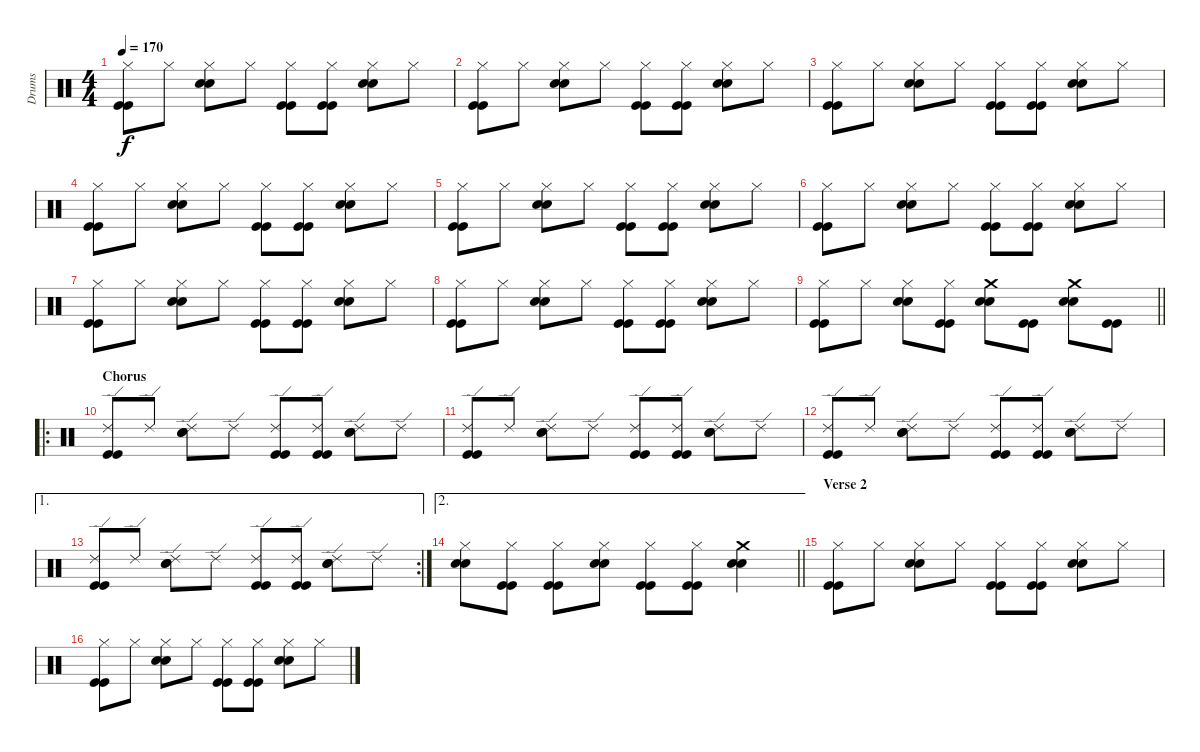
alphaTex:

\track ("Drums" "Drums") {instrument percussion}
\staff {score}
\articulation defaults
\ts (4 4)
\tempo 170
\clef neutral
\ks c
("Hi-Hat (closed)" "Kick (hit)" "Kick (hit)").8{dy f} "Hi-Hat (closed)".8 ("Hi-Hat (closed)" "Snare (hit) 2" "Snare (hit) 2").8 "Hi-Hat (closed)".8 ("Hi-Hat (closed)" "Kick (hit)" "Kick (hit)").8 ("Hi-Hat (closed)" "Kick (hit)" "Kick (hit)").8 ("Hi-Hat (closed)" "Snare (hit) 2" "Snare (hit) 2").8 "Hi-Hat (closed)".8 |
("Hi-Hat (closed)" "Kick (hit)" "Kick (hit)").8 "Hi-Hat (closed)".8 ("Hi-Hat (closed)" "Snare (hit) 2" "Snare (hit) 2").8 "Hi-Hat (closed)".8 ("Hi-Hat (closed)" "Kick (hit)" "Kick (hit)").8 ("Hi-Hat (closed)" "Kick (hit)" "Kick (hit)").8 ("Hi-Hat (closed)" "Snare (hit) 2" "Snare (hit) 2").8 "Hi-Hat (closed)".8 |
("Hi-Hat (closed)" "Kick (hit)" "Kick (hit)").8 "Hi-Hat (closed)".8 ("Hi-Hat (closed)" "Snare (hit) 2" "Snare (hit) 2").8 "Hi-Hat (closed)".8 ("Hi-Hat (closed)" "Kick (hit)" "Kick (hit)").8 ("Hi-Hat (closed)" "Kick (hit)" "Kick (hit)").8 ("Hi-Hat (closed)" "Snare (hit) 2" "Snare (hit) 2").8 "Hi-Hat (closed)".8 |
("Hi-Hat (closed)" "Kick (hit)" "Kick (hit)").8 "Hi-Hat (closed)".8 ("Hi-Hat (closed)" "Snare (hit) 2" "Snare (hit) 2").8 "Hi-Hat (closed)".8 ("Hi-Hat (closed)" "Kick (hit)" "Kick (hit)").8 ("Hi-Hat (closed)" "Kick (hit)" "Kick (hit)").8 ("Hi-Hat (closed)" "Snare (hit) 2" "Snare (hit) 2").8 "Hi-Hat (closed)".8 |
("Hi-Hat (closed)" "Kick (hit)" "Kick (hit)").8 "Hi-Hat (closed)".8 ("Hi-Hat (closed)" "Snare (hit) 2" "Snare (hit) 2").8 "Hi-Hat (closed)".8 ("Hi-Hat (closed)" "Kick (hit)" "Kick (hit)").8 ("Hi-Hat (closed)" "Kick (hit)" "Kick (hit)").8 ("Hi-Hat (closed)" "Snare (hit) 2" "Snare (hit) 2").8 "Hi-Hat (closed)".8 |
("Hi-Hat (closed)" "Kick (hit)" "Kick (hit)").8 "Hi-Hat (closed)".8 ("Hi-Hat (closed)" "Snare (hit) 2" "Snare (hit) 2").8 "Hi-Hat (closed)".8 ("Hi-Hat (closed)" "Kick (hit)" "Kick (hit)").8 ("Hi-Hat (closed)" "Kick (hit)" "Kick (hit)").8 ("Hi-Hat (closed)" "Snare (hit) 2" "Snare (hit) 2").8 "Hi-Hat (closed)".8 |
("Hi-Hat (closed)" "Kick (hit)" "Kick (hit)").8 "Hi-Hat (closed)".8 ("Hi-Hat (closed)" "Snare (hit) 2" "Snare (hit) 2").8 "Hi-Hat (closed)".8 ("Hi-Hat (closed)" "Kick (hit)" "Kick (hit)").8 ("Hi-Hat (closed)" "Kick (hit)" "Kick (hit)").8 ("Hi-Hat (closed)" "Snare (hit) 2" "Snare (hit) 2").8 "Hi-Hat (closed)".8 |
("Hi-Hat (closed)" "Kick (hit)" "Kick (hit)").8 "Hi-Hat (closed)".8 ("Hi-Hat (closed)" "Snare (hit) 2" "Snare (hit) 2").8 "Hi-Hat (closed)".8 ("Hi-Hat (closed)" "Kick (hit)" "Kick (hit)").8 ("Hi-Hat (closed)" "Kick (hit)" "Kick (hit)").8 ("Hi-Hat (closed)" "Snare (hit) 2" "Snare (hit) 2").8 "Hi-Hat (closed)".8 |
\barLineRight lightlight
("Hi-Hat (closed)" "Kick (hit)" "Kick (hit)").8 "Hi-Hat (closed)".8 ("Hi-Hat (closed)" "Snare (hit) 2" "Snare (hit) 2").8 ("Hi-Hat (closed)" "Kick (hit)" "Kick (hit)").8 ("Crash medium (hit)" "Snare (hit) 2" "Snare (hit) 2").8 ("Kick (hit)" "Kick (hit)").8 ("Crash medium (hit)" "Snare (hit) 2" "Snare (hit) 2").8 ("Kick (hit)" "Kick (hit)").8 |
\ro
\section ("" "Chorus")
("Ride (edge) 2" "Kick (hit)" "Kick (hit)").8 "Ride (edge) 2".8 ("Ride (edge) 2" "Snare (hit) 2" "Snare (hit) 2").8 "Ride (edge) 2".8 ("Ride (edge) 2" "Kick (hit)" "Kick (hit)").8 ("Ride (edge) 2" "Kick (hit)" "Kick (hit)").8 ("Ride (edge) 2" "Snare (hit) 2" "Snare (hit) 2").8 "Ride (edge) 2".8 |
("Ride (edge) 2" "Kick (hit)" "Kick (hit)").8 "Ride (edge) 2".8 ("Ride (edge) 2" "Snare (hit) 2" "Snare (hit) 2").8 "Ride (edge) 2".8 ("Ride (edge) 2" "Kick (hit)" "Kick (hit)").8 ("Ride (edge) 2" "Kick (hit)" "Kick (hit)").8 ("Ride (edge) 2" "Snare (hit) 2" "Snare (hit) 2").8 "Ride (edge) 2".8 |
("Ride (edge) 2" "Kick (hit)" "Kick (hit)").8 "Ride (edge) 2".8 ("Ride (edge) 2" "Snare (hit) 2" "Snare (hit) 2").8 "Ride (edge) 2".8 ("Ride (edge) 2" "Kick (hit)" "Kick (hit)").8 ("Ride (edge) 2" "Kick (hit)" "Kick (hit)").8 ("Ride (edge) 2" "Snare (hit) 2" "Snare (hit) 2").8 "Ride (edge) 2".8 |
\ae 1
\rc 2
("Ride (edge) 2" "Kick (hit)" "Kick (hit)").8 "Ride (edge) 2".8 ("Ride (edge) 2" "Snare (hit) 2" "Snare (hit) 2").8 "Ride (edge) 2".8 ("Ride (edge) 2" "Kick (hit)" "Kick (hit)").8 ("Ride (edge) 2" "Kick (hit)" "Kick (hit)").8 ("Ride (edge) 2" "Snare (hit) 2" "Snare (hit) 2").8 "Ride (edge) 2".8 |
\ae 2
\barLineRight lightlight
("Hi-Hat (closed)" "Snare (hit) 2" "Snare (hit) 2").8 ("Hi-Hat (closed)" "Kick (hit)" "Kick (hit)").8 ("Hi-Hat (closed)" "Kick (hit)" "Kick (hit)").8 ("Hi-Hat (closed)" "Snare (hit) 2" "Snare (hit) 2").8 ("Hi-Hat (closed)" "Kick (hit)" "Kick (hit)").8 ("Hi-Hat (closed)" "Kick (hit)" "Kick (hit)").8 ("Crash medium (hit)" "Snare (hit) 2" "Snare (hit) 2").4 |
\section ("" "Verse 2")
("Hi-Hat (closed)" "Kick (hit)" "Kick (hit)").8 "Hi-Hat (closed)".8 ("Hi-Hat (closed)" "Snare (hit) 2" "Snare (hit) 2").8 "Hi-Hat (closed)".8 ("Hi-Hat (closed)" "Kick (hit)" "Kick (hit)").8 ("Hi-Hat (closed)" "Kick (hit)" "Kick (hit)").8 ("Hi-Hat (closed)" "Snare (hit) 2" "Snare (hit) 2").8 "Hi-Hat (closed)".8 |
("Hi-Hat (closed)" "Kick (hit)" "Kick (hit)").8 "Hi-Hat (closed)".8 ("Hi-Hat (closed)" "Snare (hit) 2" "Snare (hit) 2").8 "Hi-Hat (closed)".8 ("Hi-Hat (closed)" "Kick (hit)" "Kick (hit)").8 ("Hi-Hat (closed)" "Kick (hit)" "Kick (hit)").8 ("Hi-Hat (closed)" "Snare (hit) 2" "Snare (hit) 2").8 "Hi-Hat (closed)".8
